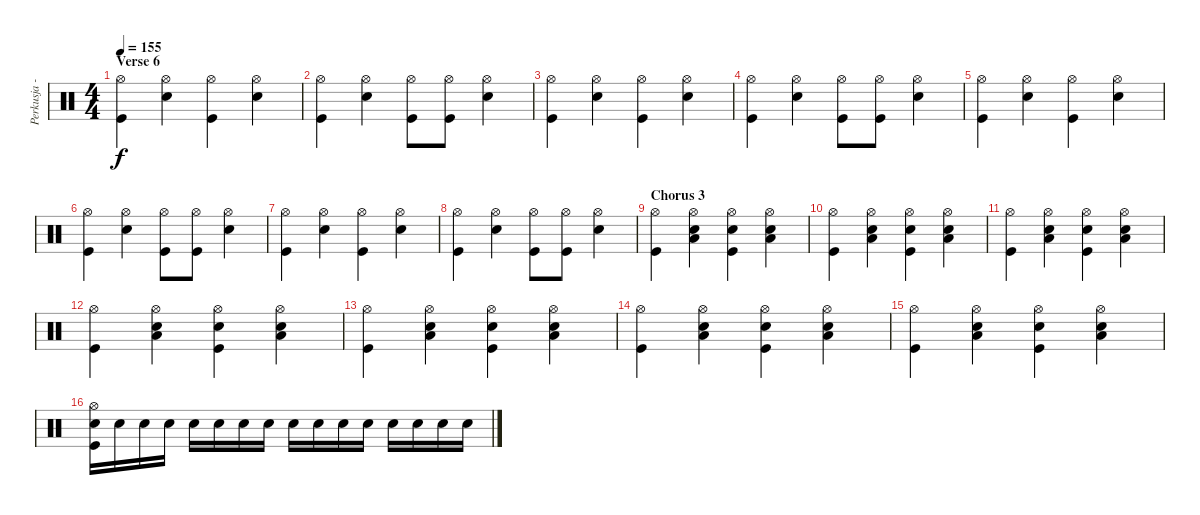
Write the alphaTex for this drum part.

\track ("Perkusja - Mielony" "Perkusja -") {instrument percussion}
\staff {score}
\articulation defaults
\ts (4 4)
\section ("" "Verse 6")
\tempo 155
\clef neutral
\ks c
("Hi-Hat (open)" "Kick (hit)").4{dy f} ("Snare (hit) 2" "Hi-Hat (open)").4 ("Hi-Hat (open)" "Kick (hit)").4 ("Snare (hit) 2" "Hi-Hat (open)").4 |
("Hi-Hat (open)" "Kick (hit)").4 ("Snare (hit) 2" "Hi-Hat (open)").4 ("Hi-Hat (open)" "Kick (hit)").8 ("Hi-Hat (open)" "Kick (hit)").8 ("Snare (hit) 2" "Hi-Hat (open)").4 |
("Hi-Hat (open)" "Kick (hit)").4 ("Snare (hit) 2" "Hi-Hat (open)").4 ("Hi-Hat (open)" "Kick (hit)").4 ("Snare (hit) 2" "Hi-Hat (open)").4 |
("Hi-Hat (open)" "Kick (hit)").4 ("Snare (hit) 2" "Hi-Hat (open)").4 ("Hi-Hat (open)" "Kick (hit)").8 ("Hi-Hat (open)" "Kick (hit)").8 ("Snare (hit) 2" "Hi-Hat (open)").4 |
("Hi-Hat (open)" "Kick (hit)").4 ("Snare (hit) 2" "Hi-Hat (open)").4 ("Hi-Hat (open)" "Kick (hit)").4 ("Snare (hit) 2" "Hi-Hat (open)").4 |
("Hi-Hat (open)" "Kick (hit)").4 ("Snare (hit) 2" "Hi-Hat (open)").4 ("Hi-Hat (open)" "Kick (hit)").8 ("Hi-Hat (open)" "Kick (hit)").8 ("Snare (hit) 2" "Hi-Hat (open)").4 |
("Hi-Hat (open)" "Kick (hit)").4 ("Snare (hit) 2" "Hi-Hat (open)").4 ("Hi-Hat (open)" "Kick (hit)").4 ("Snare (hit) 2" "Hi-Hat (open)").4 |
("Hi-Hat (open)" "Kick (hit)").4 ("Snare (hit) 2" "Hi-Hat (open)").4 ("Hi-Hat (open)" "Kick (hit)").8 ("Hi-Hat (open)" "Kick (hit)").8 ("Snare (hit) 2" "Hi-Hat (open)").4 |
\section ("" "Chorus 3")
("Hi-Hat (open)" "Kick (hit)").4 ("Snare (hit) 2" "Hi-Hat (open)" "Low Tom (hit)").4 ("Snare (hit) 2" "Hi-Hat (open)" "Kick (hit)").4 ("Snare (hit) 2" "Hi-Hat (open)" "Low Tom (hit)").4 |
("Hi-Hat (open)" "Kick (hit)").4 ("Snare (hit) 2" "Hi-Hat (open)" "Low Tom (hit)").4 ("Snare (hit) 2" "Hi-Hat (open)" "Kick (hit)").4 ("Snare (hit) 2" "Hi-Hat (open)" "Low Tom (hit)").4 |
("Hi-Hat (open)" "Kick (hit)").4 ("Snare (hit) 2" "Hi-Hat (open)" "Low Tom (hit)").4 ("Snare (hit) 2" "Hi-Hat (open)" "Kick (hit)").4 ("Snare (hit) 2" "Hi-Hat (open)" "Low Tom (hit)").4 |
("Hi-Hat (open)" "Kick (hit)").4 ("Snare (hit) 2" "Hi-Hat (open)" "Low Tom (hit)").4 ("Snare (hit) 2" "Hi-Hat (open)" "Kick (hit)").4 ("Snare (hit) 2" "Hi-Hat (open)" "Low Tom (hit)").4 |
("Hi-Hat (open)" "Kick (hit)").4 ("Snare (hit) 2" "Hi-Hat (open)" "Low Tom (hit)").4 ("Snare (hit) 2" "Hi-Hat (open)" "Kick (hit)").4 ("Snare (hit) 2" "Hi-Hat (open)" "Low Tom (hit)").4 |
("Hi-Hat (open)" "Kick (hit)").4 ("Snare (hit) 2" "Hi-Hat (open)" "Low Tom (hit)").4 ("Snare (hit) 2" "Hi-Hat (open)" "Kick (hit)").4 ("Snare (hit) 2" "Hi-Hat (open)" "Low Tom (hit)").4 |
("Hi-Hat (open)" "Kick (hit)").4 ("Snare (hit) 2" "Hi-Hat (open)" "Low Tom (hit)").4 ("Snare (hit) 2" "Hi-Hat (open)" "Kick (hit)").4 ("Snare (hit) 2" "Hi-Hat (open)" "Low Tom (hit)").4 |
("Snare (hit) 2" "Hi-Hat (open)" "Kick (hit)").16 "Snare (hit) 2".16 "Snare (hit) 2".16 "Snare (hit) 2".16 "Snare (hit) 2".16 "Snare (hit) 2".16 "Snare (hit) 2".16 "Snare (hit) 2".16 "Snare (hit) 2".16 "Snare (hit) 2".16 "Snare (hit) 2".16 "Snare (hit) 2".16 "Snare (hit) 2".16 "Snare (hit) 2".16 "Snare (hit) 2".16 "Snare (hit) 2".16
